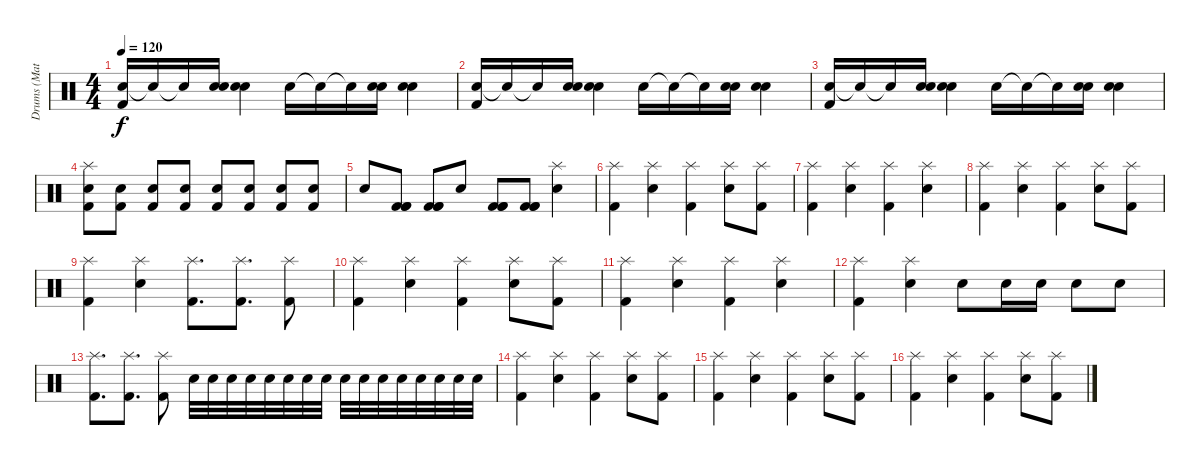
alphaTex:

\track ("Drums (Matt)" "Drums (Mat") {instrument percussion}
\staff {score}
\articulation defaults
\ts (4 4)
\tempo 120
\clef neutral
\ks c
("Snare (hit) 2" "Kick (hit) 2").16{dy f} "Snare (hit) 2"{t}.16 "Snare (hit) 2"{t}.16 ("Snare (hit) 2" "Snare (hit) 2").16 ("Snare (hit) 2" "Snare (hit) 2").4 "Snare (hit) 2".16 "Snare (hit) 2"{t}.16 "Snare (hit) 2"{t}.16 ("Snare (hit) 2" "Snare (hit) 2").16 ("Snare (hit) 2" "Snare (hit) 2").4 |
("Snare (hit) 2" "Kick (hit) 2").16 "Snare (hit) 2"{t}.16 "Snare (hit) 2"{t}.16 ("Snare (hit) 2" "Snare (hit) 2").16 ("Snare (hit) 2" "Snare (hit) 2").4 "Snare (hit) 2".16 "Snare (hit) 2"{t}.16 "Snare (hit) 2"{t}.16 ("Snare (hit) 2" "Snare (hit) 2").16 ("Snare (hit) 2" "Snare (hit) 2").4 |
("Snare (hit) 2" "Kick (hit) 2").16 "Snare (hit) 2"{t}.16 "Snare (hit) 2"{t}.16 ("Snare (hit) 2" "Snare (hit) 2").16 ("Snare (hit) 2" "Snare (hit) 2").4 "Snare (hit) 2".16 "Snare (hit) 2"{t}.16 "Snare (hit) 2"{t}.16 ("Snare (hit) 2" "Snare (hit) 2").16 ("Snare (hit) 2" "Snare (hit) 2").4 |
("Snare (hit) 2" "Kick (hit) 2" "Splash (hit)").8 ("Snare (hit) 2" "Kick (hit) 2").8 ("Snare (hit) 2" "Kick (hit) 2").8 ("Snare (hit) 2" "Kick (hit) 2").8 ("Snare (hit) 2" "Kick (hit) 2").8 ("Snare (hit) 2" "Kick (hit) 2").8 ("Snare (hit) 2" "Kick (hit) 2").8 ("Snare (hit) 2" "Kick (hit) 2").8 |
"Snare (hit) 2".8 ("Kick (hit) 2" "Kick (hit) 2" "Kick (hit) 2").8 ("Kick (hit) 2" "Kick (hit) 2" "Kick (hit) 2").8 "Snare (hit) 2".8 ("Kick (hit) 2" "Kick (hit) 2" "Kick (hit) 2").8 ("Kick (hit) 2" "Kick (hit) 2" "Kick (hit) 2").8 ("Snare (hit) 2" "Splash (hit)").4 |
("Splash (hit)" "Kick (hit) 2").4 ("Splash (hit)" "Snare (hit) 2").4 ("Splash (hit)" "Kick (hit) 2").4 ("Splash (hit)" "Snare (hit) 2").8 ("Splash (hit)" "Kick (hit) 2").8 |
("Splash (hit)" "Kick (hit) 2").4 ("Splash (hit)" "Snare (hit) 2").4 ("Splash (hit)" "Kick (hit) 2").4 ("Splash (hit)" "Snare (hit) 2").4 |
("Splash (hit)" "Kick (hit) 2").4 ("Splash (hit)" "Snare (hit) 2").4 ("Splash (hit)" "Kick (hit) 2").4 ("Splash (hit)" "Snare (hit) 2").8 ("Splash (hit)" "Kick (hit) 2").8 |
("Splash (hit)" "Kick (hit) 2").4 ("Splash (hit)" "Snare (hit) 2").4 ("Splash (hit)" "Kick (hit) 2").8{d} ("Splash (hit)" "Kick (hit) 2").8{d} ("Splash (hit)" "Kick (hit) 2").8 |
("Splash (hit)" "Kick (hit) 2").4 ("Splash (hit)" "Snare (hit) 2").4 ("Splash (hit)" "Kick (hit) 2").4 ("Splash (hit)" "Snare (hit) 2").8 ("Splash (hit)" "Kick (hit) 2").8 |
("Splash (hit)" "Kick (hit) 2").4 ("Splash (hit)" "Snare (hit) 2").4 ("Splash (hit)" "Kick (hit) 2").4 ("Splash (hit)" "Snare (hit) 2").4 |
("Splash (hit)" "Kick (hit) 2").4 ("Splash (hit)" "Snare (hit) 2").4 "Snare (hit) 2".8 "Snare (hit) 2".16 "Snare (hit) 2".16 "Snare (hit) 2".8 "Snare (hit) 2".8 |
("Splash (hit)" "Kick (hit) 2").8{d} ("Splash (hit)" "Kick (hit) 2").8{d} ("Splash (hit)" "Kick (hit) 2").8 "Snare (hit) 2".32 "Snare (hit) 2".32 "Snare (hit) 2".32 "Snare (hit) 2".32 "Snare (hit) 2".32 "Snare (hit) 2".32 "Snare (hit) 2".32 "Snare (hit) 2".32 "Snare (hit) 2".32 "Snare (hit) 2".32 "Snare (hit) 2".32 "Snare (hit) 2".32 "Snare (hit) 2".32 "Snare (hit) 2".32 "Snare (hit) 2".32 "Snare (hit) 2".32 |
("Splash (hit)" "Kick (hit) 2").4 ("Splash (hit)" "Snare (hit) 2").4 ("Splash (hit)" "Kick (hit) 2").4 ("Splash (hit)" "Snare (hit) 2").8 ("Splash (hit)" "Kick (hit) 2").8 |
("Splash (hit)" "Kick (hit) 2").4 ("Splash (hit)" "Snare (hit) 2").4 ("Splash (hit)" "Kick (hit) 2").4 ("Splash (hit)" "Snare (hit) 2").8 ("Splash (hit)" "Kick (hit) 2").8 |
("Splash (hit)" "Kick (hit) 2").4 ("Splash (hit)" "Snare (hit) 2").4 ("Splash (hit)" "Kick (hit) 2").4 ("Splash (hit)" "Snare (hit) 2").8 ("Splash (hit)" "Kick (hit) 2").8
